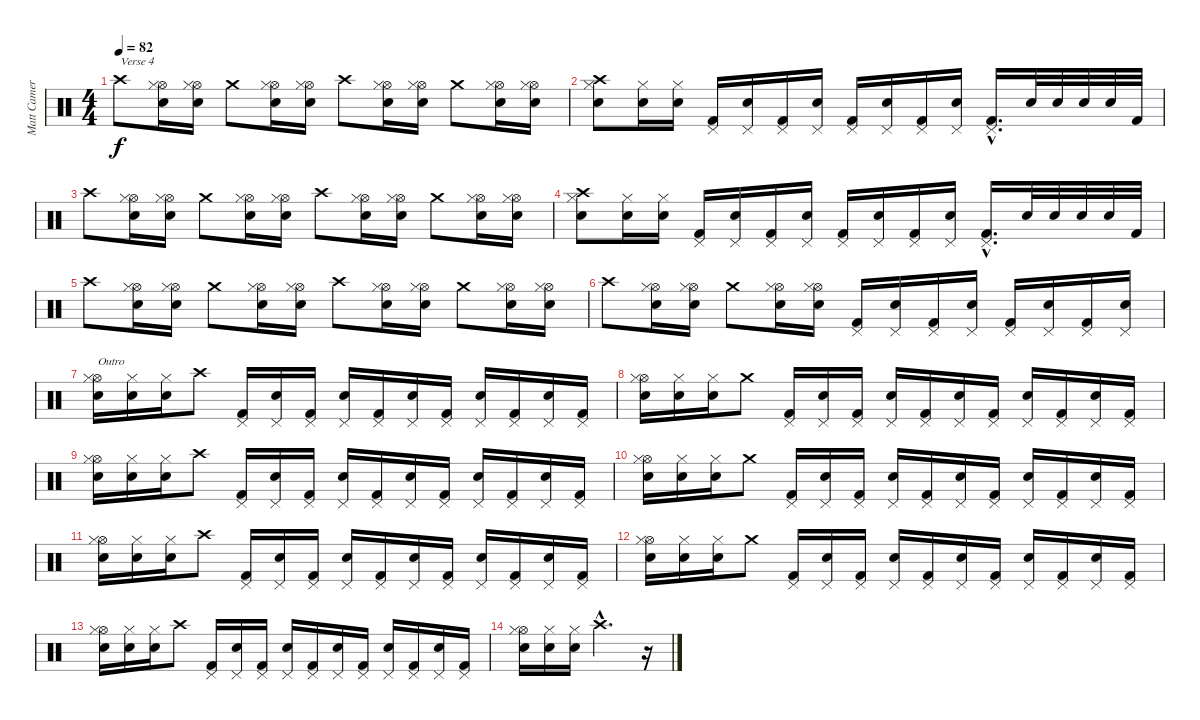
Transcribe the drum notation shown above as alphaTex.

\track ("Matt Cameron" "Matt Camer") {instrument percussion}
\staff {score}
\articulation defaults
\ts (4 4)
\tempo 82
\clef neutral
\ks c "Crash high (hit)".8{txt "Verse 4" dy f}
("Hi-Hat (open)" "Hi-Hat (closed)" "Snare (hit) 2").16 ("Hi-Hat (open)" "Hi-Hat (closed)" "Snare (hit) 2").16 "Crash medium (hit)".8 ("Hi-Hat (open)" "Hi-Hat (closed)" "Snare (hit) 2").16 ("Hi-Hat (open)" "Hi-Hat (closed)" "Snare (hit) 2").16 "Crash high (hit)".8 ("Hi-Hat (open)" "Hi-Hat (closed)" "Snare (hit) 2").16 ("Hi-Hat (open)" "Hi-Hat (closed)" "Snare (hit) 2").16 "Crash medium (hit)".8 ("Hi-Hat (open)" "Hi-Hat (closed)" "Snare (hit) 2").16 ("Hi-Hat (open)" "Hi-Hat (closed)" "Snare (hit) 2").16 |
("Crash high (hit)" "Hi-Hat (closed)" "Snare (hit) 2").8 ("Hi-Hat (closed)" "Snare (hit) 2").16 ("Hi-Hat (closed)" "Snare (hit) 2").16 ("Pedal Hi-Hat (hit)" "Kick (hit) 2").16 ("Pedal Hi-Hat (hit)" "Snare (hit) 2").16 ("Pedal Hi-Hat (hit)" "Kick (hit) 2").16 ("Pedal Hi-Hat (hit)" "Snare (hit) 2").16 ("Pedal Hi-Hat (hit)" "Kick (hit) 2").16 ("Pedal Hi-Hat (hit)" "Snare (hit) 2").16 ("Pedal Hi-Hat (hit)" "Kick (hit) 2").16 ("Pedal Hi-Hat (hit)" "Snare (hit) 2").16 ("Pedal Hi-Hat (hit)"{hac} "Kick (hit) 2"{hac}).16{d} "Snare (hit) 2".32 "Snare (hit) 2".32 "Snare (hit) 2".32 "Snare (hit) 2".32 "Kick (hit) 2".32 |
"Crash high (hit)".8 ("Hi-Hat (open)" "Hi-Hat (closed)" "Snare (hit) 2").16 ("Hi-Hat (open)" "Hi-Hat (closed)" "Snare (hit) 2").16 "Crash medium (hit)".8 ("Hi-Hat (open)" "Hi-Hat (closed)" "Snare (hit) 2").16 ("Hi-Hat (open)" "Hi-Hat (closed)" "Snare (hit) 2").16 "Crash high (hit)".8 ("Hi-Hat (open)" "Hi-Hat (closed)" "Snare (hit) 2").16 ("Hi-Hat (open)" "Hi-Hat (closed)" "Snare (hit) 2").16 "Crash medium (hit)".8 ("Hi-Hat (open)" "Hi-Hat (closed)" "Snare (hit) 2").16 ("Hi-Hat (open)" "Hi-Hat (closed)" "Snare (hit) 2").16 |
("Crash high (hit)" "Hi-Hat (closed)" "Snare (hit) 2").8 ("Hi-Hat (closed)" "Snare (hit) 2").16 ("Hi-Hat (closed)" "Snare (hit) 2").16 ("Pedal Hi-Hat (hit)" "Kick (hit) 2").16 ("Pedal Hi-Hat (hit)" "Snare (hit) 2").16 ("Pedal Hi-Hat (hit)" "Kick (hit) 2").16 ("Pedal Hi-Hat (hit)" "Snare (hit) 2").16 ("Pedal Hi-Hat (hit)" "Kick (hit) 2").16 ("Pedal Hi-Hat (hit)" "Snare (hit) 2").16 ("Pedal Hi-Hat (hit)" "Kick (hit) 2").16 ("Pedal Hi-Hat (hit)" "Snare (hit) 2").16 ("Pedal Hi-Hat (hit)"{hac} "Kick (hit) 2"{hac}).16{d} "Snare (hit) 2".32 "Snare (hit) 2".32 "Snare (hit) 2".32 "Snare (hit) 2".32 "Kick (hit) 2".32 |
"Crash high (hit)".8 ("Hi-Hat (open)" "Hi-Hat (closed)" "Snare (hit) 2").16 ("Hi-Hat (open)" "Hi-Hat (closed)" "Snare (hit) 2").16 "Crash medium (hit)".8 ("Hi-Hat (open)" "Hi-Hat (closed)" "Snare (hit) 2").16 ("Hi-Hat (open)" "Hi-Hat (closed)" "Snare (hit) 2").16 "Crash high (hit)".8 ("Hi-Hat (open)" "Hi-Hat (closed)" "Snare (hit) 2").16 ("Hi-Hat (open)" "Hi-Hat (closed)" "Snare (hit) 2").16 "Crash medium (hit)".8 ("Hi-Hat (open)" "Hi-Hat (closed)" "Snare (hit) 2").16 ("Hi-Hat (open)" "Hi-Hat (closed)" "Snare (hit) 2").16 |
"Crash high (hit)".8 ("Hi-Hat (open)" "Hi-Hat (closed)" "Snare (hit) 2").16 ("Hi-Hat (open)" "Hi-Hat (closed)" "Snare (hit) 2").16 "Crash medium (hit)".8 ("Hi-Hat (open)" "Hi-Hat (closed)" "Snare (hit) 2").16 ("Hi-Hat (open)" "Hi-Hat (closed)" "Snare (hit) 2").16 ("Pedal Hi-Hat (hit)" "Kick (hit) 2").16 ("Pedal Hi-Hat (hit)" "Snare (hit) 2").16 ("Pedal Hi-Hat (hit)" "Kick (hit) 2").16 ("Pedal Hi-Hat (hit)" "Snare (hit) 2").16 ("Pedal Hi-Hat (hit)" "Kick (hit) 2").16 ("Pedal Hi-Hat (hit)" "Snare (hit) 2").16 ("Pedal Hi-Hat (hit)" "Kick (hit) 2").16 ("Pedal Hi-Hat (hit)" "Snare (hit) 2").16 |
("Hi-Hat (open)" "Hi-Hat (closed)" "Snare (hit) 2").16{txt "Outro"} ("Hi-Hat (closed)" "Snare (hit) 2").16 ("Hi-Hat (closed)" "Snare (hit) 2").16 "Crash high (hit)".8 ("Pedal Hi-Hat (hit)" "Kick (hit) 2").16 ("Pedal Hi-Hat (hit)" "Snare (hit) 2").16 ("Pedal Hi-Hat (hit)" "Kick (hit) 2").16 ("Pedal Hi-Hat (hit)" "Snare (hit) 2").16 ("Pedal Hi-Hat (hit)" "Kick (hit) 2").16 ("Pedal Hi-Hat (hit)" "Snare (hit) 2").16 ("Pedal Hi-Hat (hit)" "Kick (hit) 2").16 ("Pedal Hi-Hat (hit)" "Snare (hit) 2").16 ("Pedal Hi-Hat (hit)" "Kick (hit) 2").16 ("Pedal Hi-Hat (hit)" "Snare (hit) 2").16 ("Pedal Hi-Hat (hit)" "Kick (hit) 2").16 |
("Hi-Hat (open)" "Hi-Hat (closed)" "Snare (hit) 2").16 ("Hi-Hat (closed)" "Snare (hit) 2").16 ("Hi-Hat (closed)" "Snare (hit) 2").16 "Crash medium (hit)".8 ("Pedal Hi-Hat (hit)" "Kick (hit) 2").16 ("Pedal Hi-Hat (hit)" "Snare (hit) 2").16 ("Pedal Hi-Hat (hit)" "Kick (hit) 2").16 ("Pedal Hi-Hat (hit)" "Snare (hit) 2").16 ("Pedal Hi-Hat (hit)" "Kick (hit) 2").16 ("Pedal Hi-Hat (hit)" "Snare (hit) 2").16 ("Pedal Hi-Hat (hit)" "Kick (hit) 2").16 ("Pedal Hi-Hat (hit)" "Snare (hit) 2").16 ("Pedal Hi-Hat (hit)" "Kick (hit) 2").16 ("Pedal Hi-Hat (hit)" "Snare (hit) 2").16 ("Pedal Hi-Hat (hit)" "Kick (hit) 2").16 |
("Hi-Hat (open)" "Hi-Hat (closed)" "Snare (hit) 2").16 ("Hi-Hat (closed)" "Snare (hit) 2").16 ("Hi-Hat (closed)" "Snare (hit) 2").16 "Crash high (hit)".8 ("Pedal Hi-Hat (hit)" "Kick (hit) 2").16 ("Pedal Hi-Hat (hit)" "Snare (hit) 2").16 ("Pedal Hi-Hat (hit)" "Kick (hit) 2").16 ("Pedal Hi-Hat (hit)" "Snare (hit) 2").16 ("Pedal Hi-Hat (hit)" "Kick (hit) 2").16 ("Pedal Hi-Hat (hit)" "Snare (hit) 2").16 ("Pedal Hi-Hat (hit)" "Kick (hit) 2").16 ("Pedal Hi-Hat (hit)" "Snare (hit) 2").16 ("Pedal Hi-Hat (hit)" "Kick (hit) 2").16 ("Pedal Hi-Hat (hit)" "Snare (hit) 2").16 ("Pedal Hi-Hat (hit)" "Kick (hit) 2").16 |
("Hi-Hat (open)" "Hi-Hat (closed)" "Snare (hit) 2").16 ("Hi-Hat (closed)" "Snare (hit) 2").16 ("Hi-Hat (closed)" "Snare (hit) 2").16 "Crash medium (hit)".8 ("Pedal Hi-Hat (hit)" "Kick (hit) 2").16 ("Pedal Hi-Hat (hit)" "Snare (hit) 2").16 ("Pedal Hi-Hat (hit)" "Kick (hit) 2").16 ("Pedal Hi-Hat (hit)" "Snare (hit) 2").16 ("Pedal Hi-Hat (hit)" "Kick (hit) 2").16 ("Pedal Hi-Hat (hit)" "Snare (hit) 2").16 ("Pedal Hi-Hat (hit)" "Kick (hit) 2").16 ("Pedal Hi-Hat (hit)" "Snare (hit) 2").16 ("Pedal Hi-Hat (hit)" "Kick (hit) 2").16 ("Pedal Hi-Hat (hit)" "Snare (hit) 2").16 ("Pedal Hi-Hat (hit)" "Kick (hit) 2").16 |
("Hi-Hat (open)" "Hi-Hat (closed)" "Snare (hit) 2").16 ("Hi-Hat (closed)" "Snare (hit) 2").16 ("Hi-Hat (closed)" "Snare (hit) 2").16 "Crash high (hit)".8 ("Pedal Hi-Hat (hit)" "Kick (hit) 2").16 ("Pedal Hi-Hat (hit)" "Snare (hit) 2").16 ("Pedal Hi-Hat (hit)" "Kick (hit) 2").16 ("Pedal Hi-Hat (hit)" "Snare (hit) 2").16 ("Pedal Hi-Hat (hit)" "Kick (hit) 2").16 ("Pedal Hi-Hat (hit)" "Snare (hit) 2").16 ("Pedal Hi-Hat (hit)" "Kick (hit) 2").16 ("Pedal Hi-Hat (hit)" "Snare (hit) 2").16 ("Pedal Hi-Hat (hit)" "Kick (hit) 2").16 ("Pedal Hi-Hat (hit)" "Snare (hit) 2").16 ("Pedal Hi-Hat (hit)" "Kick (hit) 2").16 |
("Hi-Hat (open)" "Hi-Hat (closed)" "Snare (hit) 2").16 ("Hi-Hat (closed)" "Snare (hit) 2").16 ("Hi-Hat (closed)" "Snare (hit) 2").16 "Crash medium (hit)".8 ("Pedal Hi-Hat (hit)" "Kick (hit) 2").16 ("Pedal Hi-Hat (hit)" "Snare (hit) 2").16 ("Pedal Hi-Hat (hit)" "Kick (hit) 2").16 ("Pedal Hi-Hat (hit)" "Snare (hit) 2").16 ("Pedal Hi-Hat (hit)" "Kick (hit) 2").16 ("Pedal Hi-Hat (hit)" "Snare (hit) 2").16 ("Pedal Hi-Hat (hit)" "Kick (hit) 2").16 ("Pedal Hi-Hat (hit)" "Snare (hit) 2").16 ("Pedal Hi-Hat (hit)" "Kick (hit) 2").16 ("Pedal Hi-Hat (hit)" "Snare (hit) 2").16 ("Pedal Hi-Hat (hit)" "Kick (hit) 2").16 |
("Hi-Hat (open)" "Hi-Hat (closed)" "Snare (hit) 2").16 ("Hi-Hat (closed)" "Snare (hit) 2").16 ("Hi-Hat (closed)" "Snare (hit) 2").16 "Crash high (hit)".8 ("Pedal Hi-Hat (hit)" "Kick (hit) 2").16 ("Pedal Hi-Hat (hit)" "Snare (hit) 2").16 ("Pedal Hi-Hat (hit)" "Kick (hit) 2").16 ("Pedal Hi-Hat (hit)" "Snare (hit) 2").16 ("Pedal Hi-Hat (hit)" "Kick (hit) 2").16 ("Pedal Hi-Hat (hit)" "Snare (hit) 2").16 ("Pedal Hi-Hat (hit)" "Kick (hit) 2").16 ("Pedal Hi-Hat (hit)" "Snare (hit) 2").16 ("Pedal Hi-Hat (hit)" "Kick (hit) 2").16 ("Pedal Hi-Hat (hit)" "Snare (hit) 2").16 ("Pedal Hi-Hat (hit)" "Kick (hit) 2").16 |
("Hi-Hat (open)" "Hi-Hat (closed)" "Snare (hit) 2").16 ("Hi-Hat (closed)" "Snare (hit) 2").16 ("Hi-Hat (closed)" "Snare (hit) 2").16 "Crash high (hit)"{hac}.2{d} r.16
